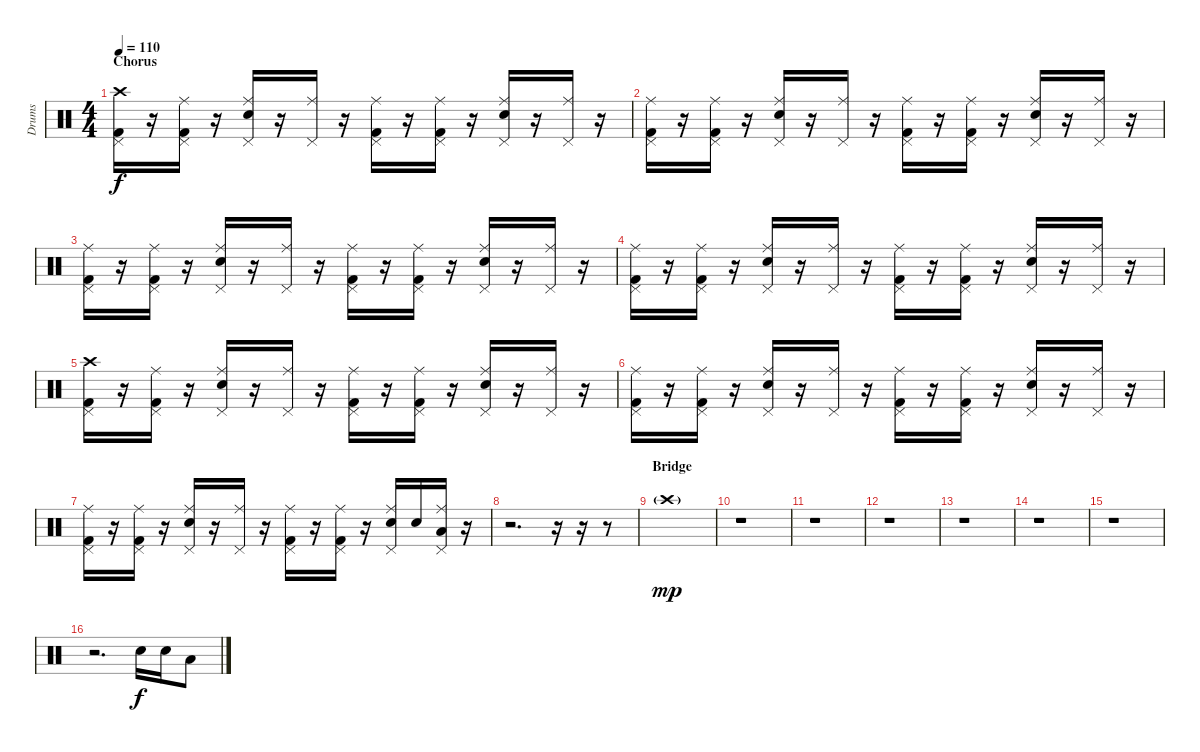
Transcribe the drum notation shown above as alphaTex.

\track ("Drums" "Drums") {instrument percussion}
\staff {score}
\articulation defaults
\ts (4 4)
\section ("" "Chorus")
\tempo 110
\clef neutral
\ks c
("Crash high (hit)" "Kick (hit) 2" "Pedal Hi-Hat (hit)").16{dy f} r.16 ("Ride (middle)" "Kick (hit) 2" "Pedal Hi-Hat (hit)").16 r.16 ("Ride (middle)" "Electric Snare (hit)" "Pedal Hi-Hat (hit)").16 r.16 ("Ride (middle)" "Pedal Hi-Hat (hit)").16 r.16 ("Ride (middle)" "Kick (hit) 2" "Pedal Hi-Hat (hit)").16 r.16 ("Ride (middle)" "Kick (hit) 2" "Pedal Hi-Hat (hit)").16 r.16 ("Ride (middle)" "Electric Snare (hit)" "Pedal Hi-Hat (hit)").16 r.16 ("Ride (middle)" "Pedal Hi-Hat (hit)").16 r.16 |
("Ride (middle)" "Kick (hit) 2" "Pedal Hi-Hat (hit)").16 r.16 ("Ride (middle)" "Kick (hit) 2" "Pedal Hi-Hat (hit)").16 r.16 ("Ride (middle)" "Electric Snare (hit)" "Pedal Hi-Hat (hit)").16 r.16 ("Ride (middle)" "Pedal Hi-Hat (hit)").16 r.16 ("Ride (middle)" "Kick (hit) 2" "Pedal Hi-Hat (hit)").16 r.16 ("Ride (middle)" "Kick (hit) 2" "Pedal Hi-Hat (hit)").16 r.16 ("Ride (middle)" "Electric Snare (hit)" "Pedal Hi-Hat (hit)").16 r.16 ("Ride (middle)" "Pedal Hi-Hat (hit)").16 r.16 |
("Ride (middle)" "Kick (hit) 2" "Pedal Hi-Hat (hit)").16 r.16 ("Ride (middle)" "Kick (hit) 2" "Pedal Hi-Hat (hit)").16 r.16 ("Ride (middle)" "Electric Snare (hit)" "Pedal Hi-Hat (hit)").16 r.16 ("Ride (middle)" "Pedal Hi-Hat (hit)").16 r.16 ("Ride (middle)" "Kick (hit) 2" "Pedal Hi-Hat (hit)").16 r.16 ("Ride (middle)" "Kick (hit) 2" "Pedal Hi-Hat (hit)").16 r.16 ("Ride (middle)" "Electric Snare (hit)" "Pedal Hi-Hat (hit)").16 r.16 ("Ride (middle)" "Pedal Hi-Hat (hit)").16 r.16 |
("Ride (middle)" "Kick (hit) 2" "Pedal Hi-Hat (hit)").16 r.16 ("Ride (middle)" "Kick (hit) 2" "Pedal Hi-Hat (hit)").16 r.16 ("Ride (middle)" "Electric Snare (hit)" "Pedal Hi-Hat (hit)").16 r.16 ("Ride (middle)" "Pedal Hi-Hat (hit)").16 r.16 ("Ride (middle)" "Kick (hit) 2" "Pedal Hi-Hat (hit)").16 r.16 ("Ride (middle)" "Kick (hit) 2" "Pedal Hi-Hat (hit)").16 r.16 ("Ride (middle)" "Electric Snare (hit)" "Pedal Hi-Hat (hit)").16 r.16 ("Ride (middle)" "Pedal Hi-Hat (hit)").16 r.16 |
("Crash high (hit)" "Kick (hit) 2" "Pedal Hi-Hat (hit)").16 r.16 ("Ride (middle)" "Kick (hit) 2" "Pedal Hi-Hat (hit)").16 r.16 ("Ride (middle)" "Electric Snare (hit)" "Pedal Hi-Hat (hit)").16 r.16 ("Ride (middle)" "Pedal Hi-Hat (hit)").16 r.16 ("Ride (middle)" "Kick (hit) 2" "Pedal Hi-Hat (hit)").16 r.16 ("Ride (middle)" "Kick (hit) 2" "Pedal Hi-Hat (hit)").16 r.16 ("Ride (middle)" "Electric Snare (hit)" "Pedal Hi-Hat (hit)").16 r.16 ("Ride (middle)" "Pedal Hi-Hat (hit)").16 r.16 |
("Ride (middle)" "Kick (hit) 2" "Pedal Hi-Hat (hit)").16 r.16 ("Ride (middle)" "Kick (hit) 2" "Pedal Hi-Hat (hit)").16 r.16 ("Ride (middle)" "Electric Snare (hit)" "Pedal Hi-Hat (hit)").16 r.16 ("Ride (middle)" "Pedal Hi-Hat (hit)").16 r.16 ("Ride (middle)" "Kick (hit) 2" "Pedal Hi-Hat (hit)").16 r.16 ("Ride (middle)" "Kick (hit) 2" "Pedal Hi-Hat (hit)").16 r.16 ("Ride (middle)" "Electric Snare (hit)" "Pedal Hi-Hat (hit)").16 r.16 ("Ride (middle)" "Pedal Hi-Hat (hit)").16 r.16 |
("Ride (middle)" "Kick (hit) 2" "Pedal Hi-Hat (hit)").16 r.16 ("Ride (middle)" "Kick (hit) 2" "Pedal Hi-Hat (hit)").16 r.16 ("Ride (middle)" "Electric Snare (hit)" "Pedal Hi-Hat (hit)").16 r.16 ("Ride (middle)" "Pedal Hi-Hat (hit)").16 r.16 ("Ride (middle)" "Kick (hit) 2" "Pedal Hi-Hat (hit)").16 r.16 ("Ride (middle)" "Kick (hit) 2" "Pedal Hi-Hat (hit)").16 r.16 ("Ride (middle)" "Electric Snare (hit)" "Pedal Hi-Hat (hit)").16 "Electric Snare (hit)".16 ("Ride (middle)" "Low Tom (hit)" "Pedal Hi-Hat (hit)").16 r.16 |
r.2{d} r.16 r.16 r.8 |
\section ("" "Bridge")
"Crash high (hit)"{g}.1{dy mp} |
r.1 |
r.1 |
r.1 |
r.1 |
r.1 |
r.1 |
r.2{d} "Electric Snare (hit)".16{dy f} "Electric Snare (hit)".16 "Low Tom (hit)".8
